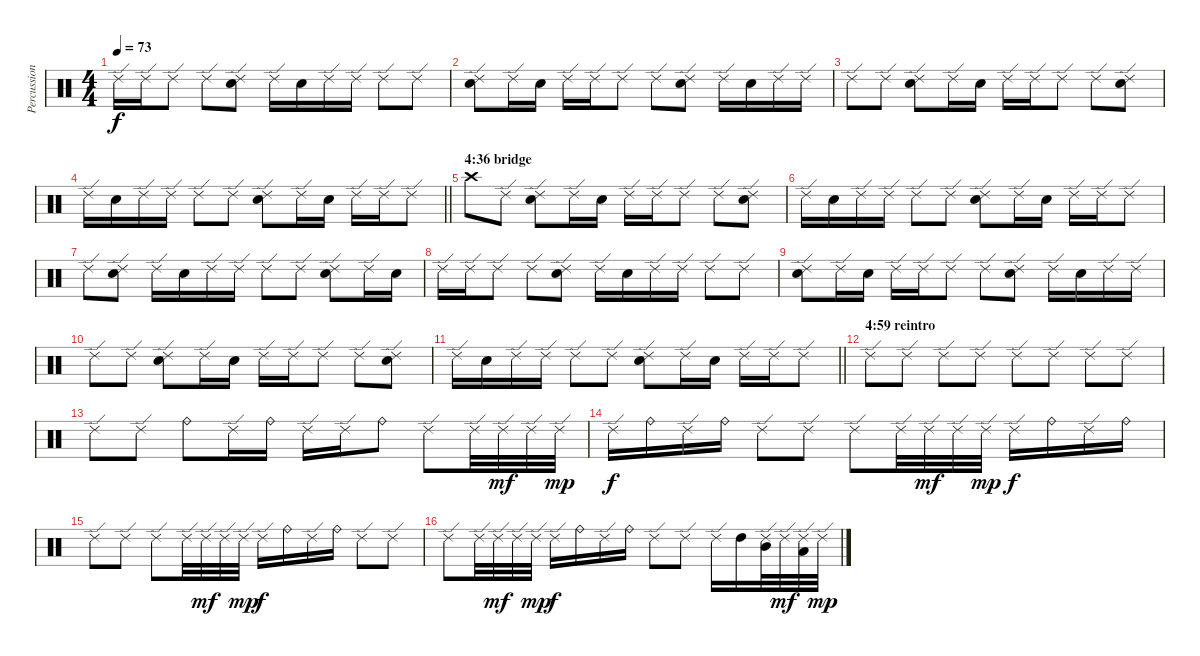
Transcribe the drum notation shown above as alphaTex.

\track ("Percussion" "Percussion") {instrument percussion}
\staff {score}
\articulation defaults
\ts (4 4)
\tempo 73
\clef neutral
\ks c "Ride (edge) 2".16{dy f} "Ride (edge) 2".16 "Ride (edge) 2".8 "Ride (edge) 2".8
("Ride (edge) 2" "Electric Snare (hit)").8 "Ride (edge) 2".16 "Electric Snare (hit)".16 "Ride (edge) 2".16 "Ride (edge) 2".16 "Ride (edge) 2".8 "Ride (edge) 2".8 |
("Ride (edge) 2" "Electric Snare (hit)").8 "Ride (edge) 2".16 "Electric Snare (hit)".16 "Ride (edge) 2".16 "Ride (edge) 2".16 "Ride (edge) 2".8 "Ride (edge) 2".8 ("Ride (edge) 2" "Electric Snare (hit)").8 "Ride (edge) 2".16 "Electric Snare (hit)".16 "Ride (edge) 2".16 "Ride (edge) 2".16 |
"Ride (edge) 2".8 "Ride (edge) 2".8 ("Ride (edge) 2" "Electric Snare (hit)").8 "Ride (edge) 2".16 "Electric Snare (hit)".16 "Ride (edge) 2".16 "Ride (edge) 2".16 "Ride (edge) 2".8 "Ride (edge) 2".8 ("Ride (edge) 2" "Electric Snare (hit)").8 |
\barLineRight lightlight "Ride (edge) 2".16 "Electric Snare (hit)".16 "Ride (edge) 2".16 "Ride (edge) 2".16 "Ride (edge) 2".8 "Ride (edge) 2".8
("Ride (edge) 2" "Electric Snare (hit)").8 "Ride (edge) 2".16 "Electric Snare (hit)".16 "Ride (edge) 2".16 "Ride (edge) 2".16 "Ride (edge) 2".8 |
\section ("" "4:36 bridge")
"Crash high (hit)".8 "Ride (edge) 2".8 ("Ride (edge) 2" "Electric Snare (hit)").8 "Ride (edge) 2".16 "Electric Snare (hit)".16 "Ride (edge) 2".16 "Ride (edge) 2".16 "Ride (edge) 2".8 "Ride (edge) 2".8 ("Ride (edge) 2" "Electric Snare (hit)").8 |
"Ride (edge) 2".16 "Electric Snare (hit)".16 "Ride (edge) 2".16 "Ride (edge) 2".16 "Ride (edge) 2".8 "Ride (edge) 2".8 ("Ride (edge) 2" "Electric Snare (hit)").8 "Ride (edge) 2".16 "Electric Snare (hit)".16 "Ride (edge) 2".16 "Ride (edge) 2".16 "Ride (edge) 2".8 |
"Ride (edge) 2".8 ("Ride (edge) 2" "Electric Snare (hit)").8 "Ride (edge) 2".16 "Electric Snare (hit)".16 "Ride (edge) 2".16 "Ride (edge) 2".16 "Ride (edge) 2".8 "Ride (edge) 2".8 ("Ride (edge) 2" "Electric Snare (hit)").8 "Ride (edge) 2".16 "Electric Snare (hit)".16 |
"Ride (edge) 2".16 "Ride (edge) 2".16 "Ride (edge) 2".8 "Ride (edge) 2".8 ("Ride (edge) 2" "Electric Snare (hit)").8 "Ride (edge) 2".16 "Electric Snare (hit)".16 "Ride (edge) 2".16 "Ride (edge) 2".16 "Ride (edge) 2".8 "Ride (edge) 2".8 |
("Ride (edge) 2" "Electric Snare (hit)").8 "Ride (edge) 2".16 "Electric Snare (hit)".16 "Ride (edge) 2".16 "Ride (edge) 2".16 "Ride (edge) 2".8 "Ride (edge) 2".8 ("Ride (edge) 2" "Electric Snare (hit)").8 "Ride (edge) 2".16 "Electric Snare (hit)".16 "Ride (edge) 2".16 "Ride (edge) 2".16 |
"Ride (edge) 2".8 "Ride (edge) 2".8 ("Ride (edge) 2" "Electric Snare (hit)").8 "Ride (edge) 2".16 "Electric Snare (hit)".16 "Ride (edge) 2".16 "Ride (edge) 2".16 "Ride (edge) 2".8 "Ride (edge) 2".8 ("Ride (edge) 2" "Electric Snare (hit)").8 |
\barLineRight lightlight "Ride (edge) 2".16 "Electric Snare (hit)".16 "Ride (edge) 2".16 "Ride (edge) 2".16 "Ride (edge) 2".8 "Ride (edge) 2".8
("Ride (edge) 2" "Electric Snare (hit)").8 "Ride (edge) 2".16 "Electric Snare (hit)".16 "Ride (edge) 2".16 "Ride (edge) 2".16 "Ride (edge) 2".8 |
\section ("" "4:59 reintro")
"Ride (edge) 2".8 "Ride (edge) 2".8 "Ride (edge) 2".8 "Ride (edge) 2".8 "Ride (edge) 2".8 "Ride (edge) 2".8 "Ride (edge) 2".8 "Ride (edge) 2".8 |
"Ride (edge) 2".8 "Ride (edge) 2".8 "Ride (bell)".8 "Ride (edge) 2".16 "Ride (bell)".16 "Ride (edge) 2".16 "Ride (edge) 2".16 "Ride (bell)".8 "Ride (edge) 2".8 "Ride (edge) 2".32 "Ride (edge) 2".32{dy mf} "Ride (edge) 2".32 "Ride (edge) 2".32{dy mp} |
"Ride (edge) 2".16{dy f} "Ride (bell)".16 "Ride (edge) 2".16 "Ride (bell)".16 "Ride (edge) 2".8 "Ride (edge) 2".8 "Ride (edge) 2".8 "Ride (edge) 2".32 "Ride (edge) 2".32{dy mf} "Ride (edge) 2".32 "Ride (edge) 2".32{dy mp} "Ride (edge) 2".16{dy f} "Ride (bell)".16 "Ride (edge) 2".16 "Ride (bell)".16 |
"Ride (edge) 2".8 "Ride (edge) 2".8 "Ride (edge) 2".8 "Ride (edge) 2".32 "Ride (edge) 2".32{dy mf} "Ride (edge) 2".32 "Ride (edge) 2".32{dy mp} "Ride (edge) 2".16{dy f} "Ride (bell)".16 "Ride (edge) 2".16 "Ride (bell)".16 "Ride (edge) 2".8 "Ride (edge) 2".8 |
"Ride (edge) 2".8 "Ride (edge) 2".32 "Ride (edge) 2".32{dy mf} "Ride (edge) 2".32 "Ride (edge) 2".32{dy mp} "Ride (edge) 2".16{dy f} "Ride (bell)".16 "Ride (edge) 2".16 "Ride (bell)".16 "Ride (edge) 2".8 "Ride (edge) 2".8 "Ride (edge) 2".16 "High Tom (hit)".16 ("Mid Tom (hit)" "Ride (edge) 2").32 "Ride (edge) 2".32{dy mf} ("Low Tom (hit)" "Ride (edge) 2").32 "Ride (edge) 2".32{dy mp}
